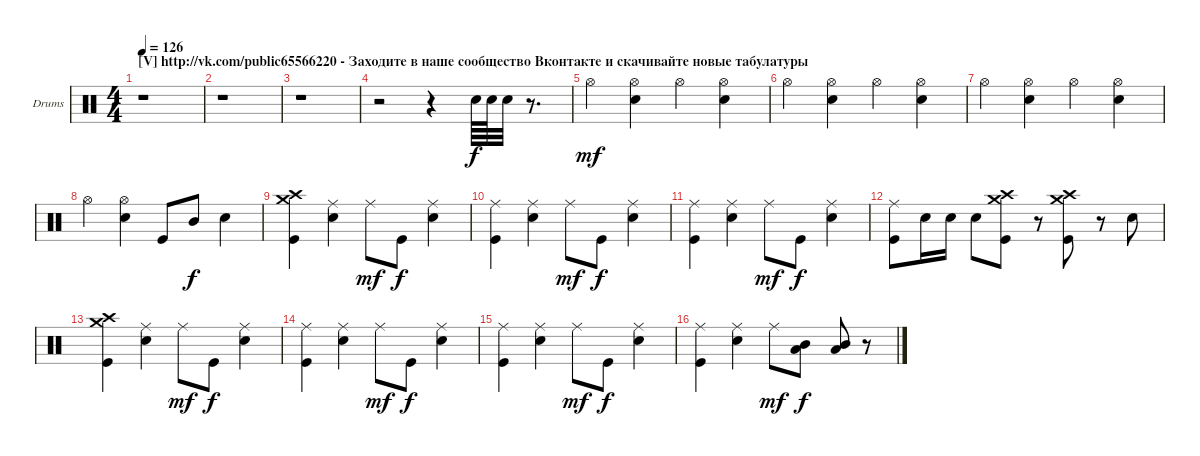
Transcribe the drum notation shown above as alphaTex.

\bracketExtendMode groupsimilarinstruments
\firstSystemTrackNameOrientation horizontal
\otherSystemsTrackNameOrientation horizontal
\track ("Александр Манякин" "Drums") {instrument percussion}
\staff {score}
\articulation defaults
\ts (4 4)
\section ("V" "http://vk.com/public65566220 - Заходите в наше сообщество Вконтакте и скачивайте новые табулатуры")
\tempo 126
\clef neutral
\ks c
r.1{dy f} |
r.1 |
r.1 |
r.2 r.4 "Snare (hit) 2".64 "Snare (hit) 2".64 "Snare (hit) 2".32 r.8{d} |
"Hi-Hat (open)".4{dy mf} ("Hi-Hat (open)" "Snare (hit) 2").4 "Hi-Hat (open)".4 ("Hi-Hat (open)" "Snare (hit) 2").4 |
"Hi-Hat (open)".4 ("Hi-Hat (open)" "Snare (hit) 2").4 "Hi-Hat (open)".4 ("Hi-Hat (open)" "Snare (hit) 2").4 |
"Hi-Hat (open)".4 ("Hi-Hat (open)" "Snare (hit) 2").4 "Hi-Hat (open)".4 ("Hi-Hat (open)" "Snare (hit) 2").4 |
"Hi-Hat (open)".4 ("Hi-Hat (open)" "Snare (hit) 2").4 "Kick (hit)".8 "Mid Tom (hit)".8{dy f} "Snare (hit) 2".4 |
("Kick (hit)" "Crash medium (hit)" "Crash high (hit)").4 ("Snare (hit) 2" "Ride (middle)").4 "Ride (middle)".8{dy mf} "Kick (hit)".8{dy f} ("Snare (hit) 2" "Ride (middle)").4 |
("Kick (hit)" "Ride (middle)").4 ("Snare (hit) 2" "Ride (middle)").4 "Ride (middle)".8{dy mf} "Kick (hit)".8{dy f} ("Snare (hit) 2" "Ride (middle)").4 |
("Kick (hit)" "Ride (middle)").4 ("Snare (hit) 2" "Ride (middle)").4 "Ride (middle)".8{dy mf} "Kick (hit)".8{dy f} ("Snare (hit) 2" "Ride (middle)").4 |
("Kick (hit)" "Ride (middle)").8 "Snare (hit) 2".16 "Snare (hit) 2".16 "Snare (hit) 2".8 ("Kick (hit)" "Crash medium (hit)" "Crash high (hit)").8 r.8 ("Kick (hit)" "Crash medium (hit)" "Crash high (hit)").8 r.8 "Snare (hit) 2".8 |
("Kick (hit)" "Crash medium (hit)" "Crash high (hit)").4 ("Snare (hit) 2" "Ride (middle)").4 "Ride (middle)".8{dy mf} "Kick (hit)".8{dy f} ("Snare (hit) 2" "Ride (middle)").4 |
("Kick (hit)" "Ride (middle)").4 ("Snare (hit) 2" "Ride (middle)").4 "Ride (middle)".8{dy mf} "Kick (hit)".8{dy f} ("Snare (hit) 2" "Ride (middle)").4 |
("Kick (hit)" "Ride (middle)").4 ("Snare (hit) 2" "Ride (middle)").4 "Ride (middle)".8{dy mf} "Kick (hit)".8{dy f} ("Snare (hit) 2" "Ride (middle)").4 |
("Kick (hit)" "Ride (middle)").4 ("Snare (hit) 2" "Ride (middle)").4 "Ride (middle)".8{dy mf} ("Mid Tom (hit)" "Low Tom (hit)").8{dy f} ("Mid Tom (hit)" "Low Tom (hit)").8 r.8
